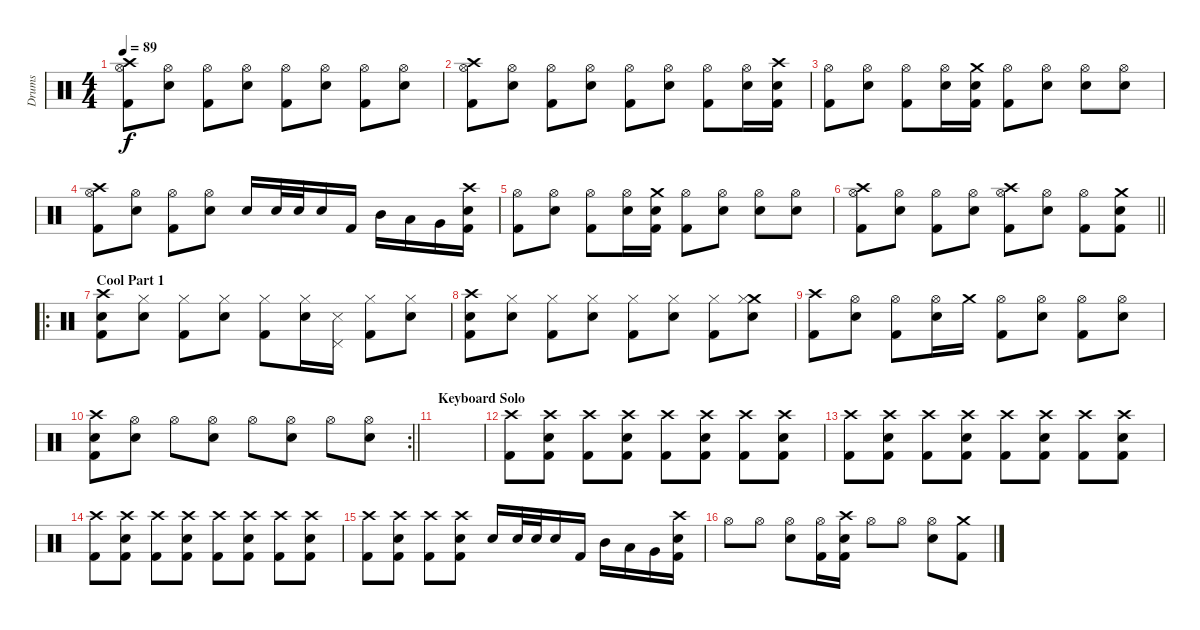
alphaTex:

\track ("Drums" "Drums") {instrument percussion}
\staff {score}
\articulation defaults
\ts (4 4)
\tempo 89
\clef neutral
\ks c
("Crash high (hit)" "Hi-Hat (open)" "Kick (hit) 2").8{dy f} ("Hi-Hat (open)" "Snare (hit) 2").8 ("Hi-Hat (open)" "Kick (hit) 2").8 ("Hi-Hat (open)" "Snare (hit) 2").8 ("Hi-Hat (open)" "Kick (hit) 2").8 ("Hi-Hat (open)" "Snare (hit) 2").8 ("Hi-Hat (open)" "Kick (hit) 2").8 ("Hi-Hat (open)" "Snare (hit) 2").8 |
("Crash high (hit)" "Hi-Hat (open)" "Kick (hit) 2").8 ("Hi-Hat (open)" "Snare (hit) 2").8 ("Hi-Hat (open)" "Kick (hit) 2").8 ("Hi-Hat (open)" "Snare (hit) 2").8 ("Hi-Hat (open)" "Kick (hit) 2").8 ("Hi-Hat (open)" "Snare (hit) 2").8 ("Hi-Hat (open)" "Kick (hit) 2").8 ("Hi-Hat (open)" "Snare (hit) 2").16 ("Crash high (hit)" "Snare (hit) 2" "Kick (hit) 2").16 |
("Hi-Hat (open)" "Kick (hit) 2").8 ("Hi-Hat (open)" "Snare (hit) 2").8 ("Hi-Hat (open)" "Kick (hit) 2").8 ("Hi-Hat (open)" "Snare (hit) 2").16 ("Crash medium (hit)" "Snare (hit) 2" "Kick (hit) 2").16 ("Hi-Hat (open)" "Kick (hit) 2").8 ("Hi-Hat (open)" "Snare (hit) 2").8 ("Hi-Hat (open)" "Snare (hit) 2").8 ("Hi-Hat (open)" "Snare (hit) 2").8 |
("Crash high (hit)" "Hi-Hat (open)" "Kick (hit) 2").8 ("Hi-Hat (open)" "Snare (hit) 2").8 ("Hi-Hat (open)" "Kick (hit) 2").8 ("Hi-Hat (open)" "Snare (hit) 2").8 "Snare (hit) 2".16 "Snare (hit) 2".32 "Snare (hit) 2".32 "Snare (hit) 2".16 "Kick (hit) 2".16 "Mid Tom (hit)".16 "Low Tom (hit)".16 "Very Low Tom (hit)".16 ("Crash high (hit)" "Snare (hit) 2" "Kick (hit) 2").16 |
("Hi-Hat (open)" "Kick (hit) 2").8 ("Hi-Hat (open)" "Snare (hit) 2").8 ("Hi-Hat (open)" "Kick (hit) 2").8 ("Hi-Hat (open)" "Snare (hit) 2").16 ("Crash medium (hit)" "Snare (hit) 2" "Kick (hit) 2").16 ("Hi-Hat (open)" "Kick (hit) 2").8 ("Hi-Hat (open)" "Snare (hit) 2").8 ("Hi-Hat (open)" "Snare (hit) 2").8 ("Hi-Hat (open)" "Snare (hit) 2").8 |
\barLineRight lightlight
("Crash high (hit)" "Hi-Hat (open)" "Kick (hit) 2").8 ("Hi-Hat (open)" "Snare (hit) 2").8 ("Hi-Hat (open)" "Kick (hit) 2").8 ("Hi-Hat (open)" "Snare (hit) 2").8 ("Crash high (hit)" "Hi-Hat (open)" "Kick (hit) 2").8 ("Hi-Hat (open)" "Snare (hit) 2").8 ("Hi-Hat (open)" "Kick (hit) 2").8 ("Crash medium (hit)" "Snare (hit) 2" "Kick (hit) 2").8 |
\ro
\section ("" "Cool Part 1")
("Crash high (hit)" "Snare (hit) 2" "Kick (hit) 2").8 ("Hi-Hat (closed)" "Snare (hit) 2").8 ("Hi-Hat (closed)" "Kick (hit) 2").8 ("Hi-Hat (closed)" "Snare (hit) 2").8 ("Hi-Hat (closed)" "Kick (hit) 2").8 ("Hi-Hat (closed)" "Snare (hit) 2").16 ("Pedal Hi-Hat (hit)" "Snare (side stick) 3").16 ("Hi-Hat (closed)" "Kick (hit) 2").8 ("Hi-Hat (closed)" "Snare (hit) 2").8 |
("Crash high (hit)" "Snare (hit) 2" "Kick (hit) 2").8 ("Hi-Hat (closed)" "Snare (hit) 2").8 ("Hi-Hat (closed)" "Kick (hit) 2").8 ("Hi-Hat (closed)" "Snare (hit) 2").8 ("Hi-Hat (closed)" "Kick (hit) 2").8 ("Hi-Hat (closed)" "Snare (hit) 2").8 ("Hi-Hat (closed)" "Kick (hit) 2").8 ("Crash medium (hit)" "Hi-Hat (closed)" "Snare (hit) 2").8 |
("Crash high (hit)" "Kick (hit) 2").8 ("Hi-Hat (open)" "Snare (hit) 2").8 ("Hi-Hat (open)" "Kick (hit) 2").8 ("Hi-Hat (open)" "Snare (hit) 2").16 "Crash medium (hit)".16 ("Hi-Hat (open)" "Kick (hit) 2").8 ("Hi-Hat (open)" "Snare (hit) 2").8 ("Hi-Hat (open)" "Kick (hit) 2").8 ("Hi-Hat (open)" "Snare (hit) 2").8 |
\rc 2
\barLineRight lightlight
("Crash high (hit)" "Snare (hit) 2" "Kick (hit) 2").8 ("Hi-Hat (open)" "Snare (hit) 2").8 "Hi-Hat (open)".8 ("Hi-Hat (open)" "Snare (hit) 2").8 "Hi-Hat (open)".8 ("Hi-Hat (open)" "Snare (hit) 2").8 "Hi-Hat (open)".8 ("Hi-Hat (open)" "Snare (hit) 2").8 |
\section ("" "Keyboard Solo")
|
("Crash high (hit)" "Kick (hit) 2").8 ("Crash high (hit)" "Snare (hit) 2" "Kick (hit) 2").8 ("Crash high (hit)" "Kick (hit) 2").8 ("Crash high (hit)" "Snare (hit) 2" "Kick (hit) 2").8 ("Crash high (hit)" "Kick (hit) 2").8 ("Crash high (hit)" "Snare (hit) 2" "Kick (hit) 2").8 ("Crash high (hit)" "Kick (hit) 2").8 ("Crash high (hit)" "Snare (hit) 2" "Kick (hit) 2").8 |
("Crash high (hit)" "Kick (hit) 2").8 ("Crash high (hit)" "Snare (hit) 2" "Kick (hit) 2").8 ("Crash high (hit)" "Kick (hit) 2").8 ("Crash high (hit)" "Snare (hit) 2" "Kick (hit) 2").8 ("Crash high (hit)" "Kick (hit) 2").8 ("Crash high (hit)" "Snare (hit) 2" "Kick (hit) 2").8 ("Crash high (hit)" "Kick (hit) 2").8 ("Crash high (hit)" "Snare (hit) 2" "Kick (hit) 2").8 |
("Crash high (hit)" "Kick (hit) 2").8 ("Crash high (hit)" "Snare (hit) 2" "Kick (hit) 2").8 ("Crash high (hit)" "Kick (hit) 2").8 ("Crash high (hit)" "Snare (hit) 2" "Kick (hit) 2").8 ("Crash high (hit)" "Kick (hit) 2").8 ("Crash high (hit)" "Snare (hit) 2" "Kick (hit) 2").8 ("Crash high (hit)" "Kick (hit) 2").8 ("Crash high (hit)" "Snare (hit) 2" "Kick (hit) 2").8 |
("Crash high (hit)" "Kick (hit) 2").8 ("Crash high (hit)" "Snare (hit) 2" "Kick (hit) 2").8 ("Crash high (hit)" "Kick (hit) 2").8 ("Crash high (hit)" "Snare (hit) 2" "Kick (hit) 2").8 "Snare (hit) 2".16 "Snare (hit) 2".32 "Snare (hit) 2".32 "Snare (hit) 2".16 "Kick (hit) 2".16 "Mid Tom (hit)".16 "Low Tom (hit)".16 "Very Low Tom (hit)".16 ("Crash high (hit)" "Snare (hit) 2" "Kick (hit) 2").16 |
"Hi-Hat (open)".8 "Hi-Hat (open)".8 ("Hi-Hat (open)" "Snare (hit) 2").8 ("Hi-Hat (open)" "Kick (hit) 2").16 ("Crash high (hit)" "Snare (hit) 2" "Kick (hit) 2").16 "Hi-Hat (open)".8 "Hi-Hat (open)".8 ("Hi-Hat (open)" "Snare (hit) 2").8 ("Crash medium (hit)" "Kick (hit) 2").8
